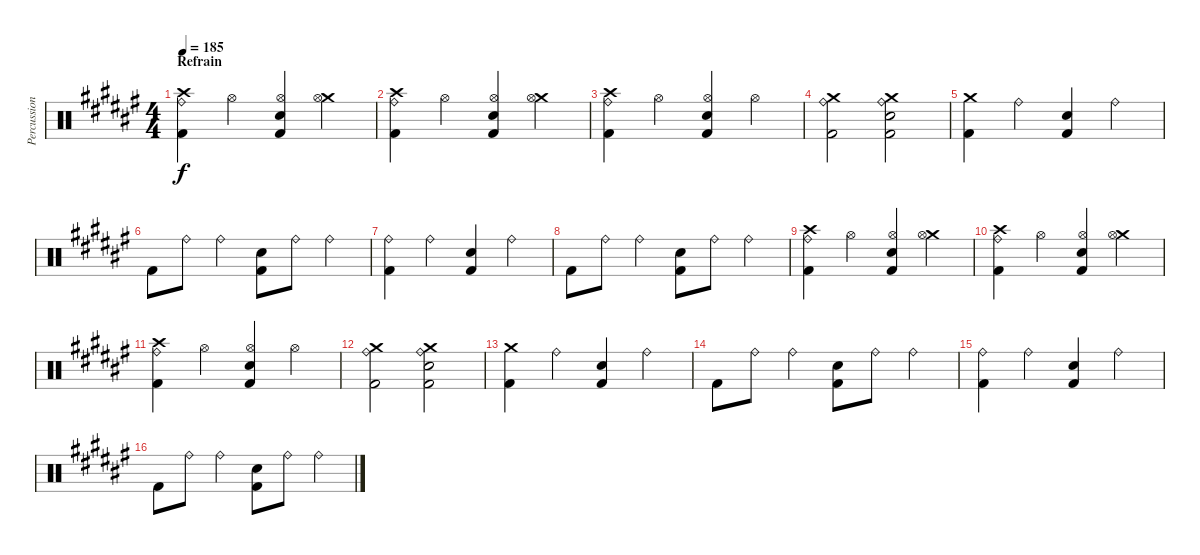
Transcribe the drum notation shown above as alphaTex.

\track ("Percussion" "Percussion") {instrument percussion}
\staff {score}
\articulation defaults
\ts (4 4)
\section ("" "Refrain")
\tempo 185
\clef neutral
\ks d#minor
("Crash high (hit)" "Ride (bell)" "Kick (hit) 2").4{dy f} "Hi-Hat (open)".4 ("Hi-Hat (open)" "Electric Snare (hit)" "Kick (hit) 2").4 ("Crash medium (hit)" "Hi-Hat (open)").4 |
("Crash high (hit)" "Ride (bell)" "Kick (hit) 2").4 "Hi-Hat (open)".4 ("Hi-Hat (open)" "Electric Snare (hit)" "Kick (hit) 2").4 ("Crash medium (hit)" "Hi-Hat (open)").4 |
("Crash high (hit)" "Ride (bell)" "Kick (hit) 2").4 "Hi-Hat (open)".4 ("Hi-Hat (open)" "Electric Snare (hit)" "Kick (hit) 2").4 "Hi-Hat (open)".4 |
("Crash medium (hit)" "Ride (bell)" "Kick (hit) 2").2 ("Crash medium (hit)" "Ride (bell)" "Electric Snare (hit)" "Kick (hit) 2").2 |
("Crash medium (hit)" "Kick (hit) 2").4 "Ride (bell)".4 ("Electric Snare (hit)" "Kick (hit) 2").4 "Ride (bell)".4 |
"Kick (hit) 2".8 "Ride (bell)".8 "Ride (bell)".4 ("Electric Snare (hit)" "Kick (hit) 2").8 "Ride (bell)".8 "Ride (bell)".4 |
("Ride (bell)" "Kick (hit) 2").4 "Ride (bell)".4 ("Electric Snare (hit)" "Kick (hit) 2").4 "Ride (bell)".4 |
"Kick (hit) 2".8 "Ride (bell)".8 "Ride (bell)".4 ("Electric Snare (hit)" "Kick (hit) 2").8 "Ride (bell)".8 "Ride (bell)".4 |
("Crash high (hit)" "Ride (bell)" "Kick (hit) 2").4 "Hi-Hat (open)".4 ("Hi-Hat (open)" "Electric Snare (hit)" "Kick (hit) 2").4 ("Crash medium (hit)" "Hi-Hat (open)").4 |
("Crash high (hit)" "Ride (bell)" "Kick (hit) 2").4 "Hi-Hat (open)".4 ("Hi-Hat (open)" "Electric Snare (hit)" "Kick (hit) 2").4 ("Crash medium (hit)" "Hi-Hat (open)").4 |
("Crash high (hit)" "Ride (bell)" "Kick (hit) 2").4 "Hi-Hat (open)".4 ("Hi-Hat (open)" "Electric Snare (hit)" "Kick (hit) 2").4 "Hi-Hat (open)".4 |
("Crash medium (hit)" "Ride (bell)" "Kick (hit) 2").2 ("Crash medium (hit)" "Ride (bell)" "Electric Snare (hit)" "Kick (hit) 2").2 |
("Crash medium (hit)" "Kick (hit) 2").4 "Ride (bell)".4 ("Electric Snare (hit)" "Kick (hit) 2").4 "Ride (bell)".4 |
"Kick (hit) 2".8 "Ride (bell)".8 "Ride (bell)".4 ("Electric Snare (hit)" "Kick (hit) 2").8 "Ride (bell)".8 "Ride (bell)".4 |
("Ride (bell)" "Kick (hit) 2").4 "Ride (bell)".4 ("Electric Snare (hit)" "Kick (hit) 2").4 "Ride (bell)".4 |
"Kick (hit) 2".8 "Ride (bell)".8 "Ride (bell)".4 ("Electric Snare (hit)" "Kick (hit) 2").8 "Ride (bell)".8 "Ride (bell)".4
